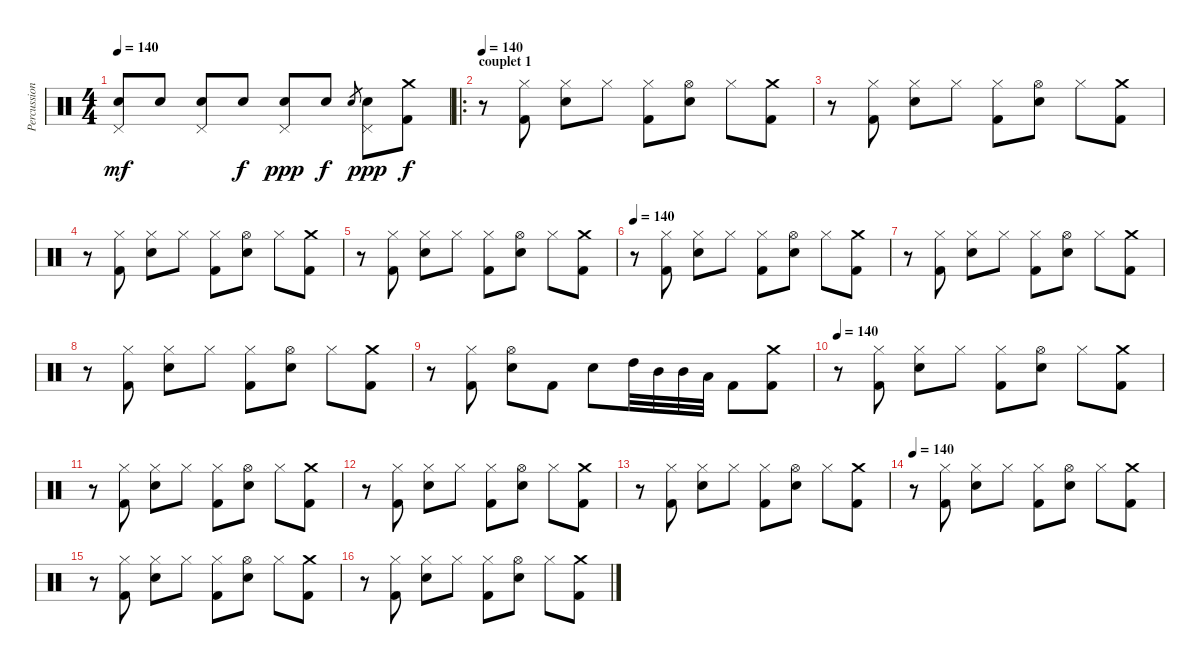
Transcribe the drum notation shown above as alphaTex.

\track ("Percussions" "Percussion") {instrument percussion}
\staff {score}
\articulation defaults
\ts (4 4)
\tempo 140
\clef neutral
\ks c
("Pedal Hi-Hat (hit)" "Electric Snare (hit)").8{dy mf} "Electric Snare (hit)".8 ("Pedal Hi-Hat (hit)" "Electric Snare (hit)").8 "Electric Snare (hit)".8{dy f} ("Pedal Hi-Hat (hit)" "Electric Snare (hit)").8{dy ppp} "Electric Snare (hit)".8{dy f} "Electric Snare (hit)".8{gr} ("Pedal Hi-Hat (hit)" "Electric Snare (hit)").8{dy ppp} ("Crash medium (hit)" "Kick (hit) 2").8{dy f} |
\ro
\section ("" "couplet 1")
\tempo 140
r.8 ("Hi-Hat (closed)" "Kick (hit) 2").8 ("Hi-Hat (closed)" "Electric Snare (hit)").8 "Hi-Hat (closed)".8 ("Hi-Hat (closed)" "Kick (hit) 2").8 ("Hi-Hat (open)" "Electric Snare (hit)").8 "Hi-Hat (closed)".8 ("Crash medium (hit)" "Kick (hit) 2").8 |
r.8 ("Hi-Hat (closed)" "Kick (hit) 2").8 ("Hi-Hat (closed)" "Electric Snare (hit)").8 "Hi-Hat (closed)".8 ("Hi-Hat (closed)" "Kick (hit) 2").8 ("Hi-Hat (open)" "Electric Snare (hit)").8 "Hi-Hat (closed)".8 ("Crash medium (hit)" "Kick (hit) 2").8 |
r.8 ("Hi-Hat (closed)" "Kick (hit) 2").8 ("Hi-Hat (closed)" "Electric Snare (hit)").8 "Hi-Hat (closed)".8 ("Hi-Hat (closed)" "Kick (hit) 2").8 ("Hi-Hat (open)" "Electric Snare (hit)").8 "Hi-Hat (closed)".8 ("Crash medium (hit)" "Kick (hit) 2").8 |
r.8 ("Hi-Hat (closed)" "Kick (hit) 2").8 ("Hi-Hat (closed)" "Electric Snare (hit)").8 "Hi-Hat (closed)".8 ("Hi-Hat (closed)" "Kick (hit) 2").8 ("Hi-Hat (open)" "Electric Snare (hit)").8 "Hi-Hat (closed)".8 ("Crash medium (hit)" "Kick (hit) 2").8 |
\tempo 140
r.8 ("Hi-Hat (closed)" "Kick (hit) 2").8 ("Hi-Hat (closed)" "Electric Snare (hit)").8 "Hi-Hat (closed)".8 ("Hi-Hat (closed)" "Kick (hit) 2").8 ("Hi-Hat (open)" "Electric Snare (hit)").8 "Hi-Hat (closed)".8 ("Crash medium (hit)" "Kick (hit) 2").8 |
r.8 ("Hi-Hat (closed)" "Kick (hit) 2").8 ("Hi-Hat (closed)" "Electric Snare (hit)").8 "Hi-Hat (closed)".8 ("Hi-Hat (closed)" "Kick (hit) 2").8 ("Hi-Hat (open)" "Electric Snare (hit)").8 "Hi-Hat (closed)".8 ("Crash medium (hit)" "Kick (hit) 2").8 |
r.8 ("Hi-Hat (closed)" "Kick (hit) 2").8 ("Hi-Hat (closed)" "Electric Snare (hit)").8 "Hi-Hat (closed)".8 ("Hi-Hat (closed)" "Kick (hit) 2").8 ("Hi-Hat (open)" "Electric Snare (hit)").8 "Hi-Hat (closed)".8 ("Crash medium (hit)" "Kick (hit) 2").8 |
r.8 ("Hi-Hat (closed)" "Kick (hit) 2").8 ("Hi-Hat (open)" "Electric Snare (hit)").8 "Kick (hit) 2".8 "Electric Snare (hit)".8 "High Tom (hit)".32 "Mid Tom (hit)".32 "Mid Tom (hit)".32 "Low Tom (hit)".32 "Kick (hit) 2".8 ("Crash medium (hit)" "Kick (hit) 2").8 |
\tempo 140
r.8 ("Hi-Hat (closed)" "Kick (hit) 2").8 ("Hi-Hat (closed)" "Electric Snare (hit)").8 "Hi-Hat (closed)".8 ("Hi-Hat (closed)" "Kick (hit) 2").8 ("Hi-Hat (open)" "Electric Snare (hit)").8 "Hi-Hat (closed)".8 ("Crash medium (hit)" "Kick (hit) 2").8 |
r.8 ("Hi-Hat (closed)" "Kick (hit) 2").8 ("Hi-Hat (closed)" "Electric Snare (hit)").8 "Hi-Hat (closed)".8 ("Hi-Hat (closed)" "Kick (hit) 2").8 ("Hi-Hat (open)" "Electric Snare (hit)").8 "Hi-Hat (closed)".8 ("Crash medium (hit)" "Kick (hit) 2").8 |
r.8 ("Hi-Hat (closed)" "Kick (hit) 2").8 ("Hi-Hat (closed)" "Electric Snare (hit)").8 "Hi-Hat (closed)".8 ("Hi-Hat (closed)" "Kick (hit) 2").8 ("Hi-Hat (open)" "Electric Snare (hit)").8 "Hi-Hat (closed)".8 ("Crash medium (hit)" "Kick (hit) 2").8 |
r.8 ("Hi-Hat (closed)" "Kick (hit) 2").8 ("Hi-Hat (closed)" "Electric Snare (hit)").8 "Hi-Hat (closed)".8 ("Hi-Hat (closed)" "Kick (hit) 2").8 ("Hi-Hat (open)" "Electric Snare (hit)").8 "Hi-Hat (closed)".8 ("Crash medium (hit)" "Kick (hit) 2").8 |
\tempo 140
r.8 ("Hi-Hat (closed)" "Kick (hit) 2").8 ("Hi-Hat (closed)" "Electric Snare (hit)").8 "Hi-Hat (closed)".8 ("Hi-Hat (closed)" "Kick (hit) 2").8 ("Hi-Hat (open)" "Electric Snare (hit)").8 "Hi-Hat (closed)".8 ("Crash medium (hit)" "Kick (hit) 2").8 |
r.8 ("Hi-Hat (closed)" "Kick (hit) 2").8 ("Hi-Hat (closed)" "Electric Snare (hit)").8 "Hi-Hat (closed)".8 ("Hi-Hat (closed)" "Kick (hit) 2").8 ("Hi-Hat (open)" "Electric Snare (hit)").8 "Hi-Hat (closed)".8 ("Crash medium (hit)" "Kick (hit) 2").8 |
r.8 ("Hi-Hat (closed)" "Kick (hit) 2").8 ("Hi-Hat (closed)" "Electric Snare (hit)").8 "Hi-Hat (closed)".8 ("Hi-Hat (closed)" "Kick (hit) 2").8 ("Hi-Hat (open)" "Electric Snare (hit)").8 "Hi-Hat (closed)".8 ("Crash medium (hit)" "Kick (hit) 2").8
